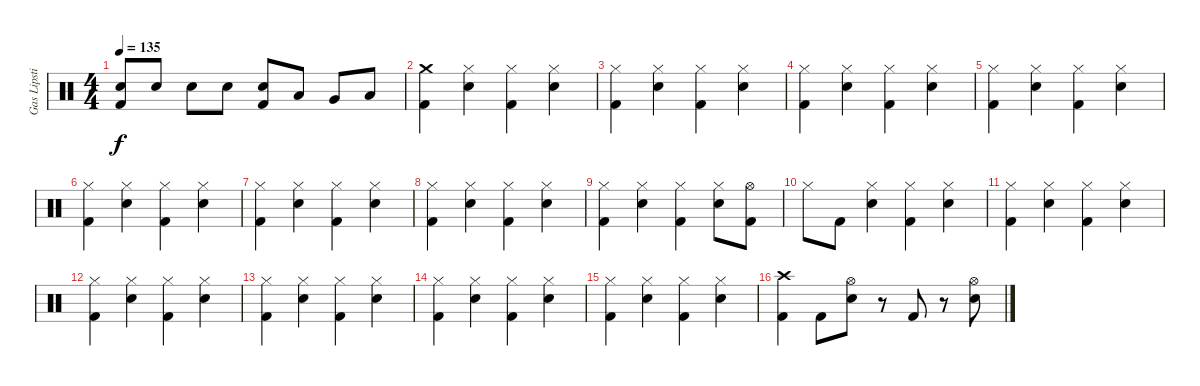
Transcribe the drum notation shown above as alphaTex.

\track ("Gas Lipstick" "Gas Lipsti") {instrument percussion}
\staff {score}
\articulation defaults
\ts (4 4)
\tempo 135
\clef neutral
\ks c
("Electric Snare (hit)" "Kick (hit) 2").8{dy f} "Electric Snare (hit)".8 "Electric Snare (hit)".8 "Electric Snare (hit)".8 ("Electric Snare (hit)" "Kick (hit) 2").8 "Low Tom (hit)".8 "Very Low Tom (hit)".8 "Low Floor Tom (hit)".8 |
("Kick (hit) 2" "Crash medium (hit)").4 ("Hi-Hat (closed)" "Electric Snare (hit)").4 ("Hi-Hat (closed)" "Kick (hit) 2").4 ("Hi-Hat (closed)" "Electric Snare (hit)").4 |
("Hi-Hat (closed)" "Kick (hit) 2").4 ("Hi-Hat (closed)" "Electric Snare (hit)").4 ("Kick (hit) 2" "Hi-Hat (closed)").4 ("Electric Snare (hit)" "Hi-Hat (closed)").4 |
("Hi-Hat (closed)" "Kick (hit) 2").4 ("Hi-Hat (closed)" "Electric Snare (hit)").4 ("Hi-Hat (closed)" "Kick (hit) 2").4 ("Hi-Hat (closed)" "Electric Snare (hit)").4 |
("Hi-Hat (closed)" "Kick (hit) 2").4 ("Hi-Hat (closed)" "Electric Snare (hit)").4 ("Kick (hit) 2" "Hi-Hat (closed)").4 ("Electric Snare (hit)" "Hi-Hat (closed)").4 |
("Hi-Hat (closed)" "Kick (hit) 2").4 ("Hi-Hat (closed)" "Electric Snare (hit)").4 ("Hi-Hat (closed)" "Kick (hit) 2").4 ("Hi-Hat (closed)" "Electric Snare (hit)").4 |
("Hi-Hat (closed)" "Kick (hit) 2").4 ("Hi-Hat (closed)" "Electric Snare (hit)").4 ("Kick (hit) 2" "Hi-Hat (closed)").4 ("Electric Snare (hit)" "Hi-Hat (closed)").4 |
("Hi-Hat (closed)" "Kick (hit) 2").4 ("Hi-Hat (closed)" "Electric Snare (hit)").4 ("Hi-Hat (closed)" "Kick (hit) 2").4 ("Hi-Hat (closed)" "Electric Snare (hit)").4 |
("Hi-Hat (closed)" "Kick (hit) 2").4 ("Hi-Hat (closed)" "Electric Snare (hit)").4 ("Kick (hit) 2" "Hi-Hat (closed)").4 ("Electric Snare (hit)" "Hi-Hat (closed)").8 ("Kick (hit) 2" "Hi-Hat (open)").8 |
"Hi-Hat (closed)".8 "Kick (hit) 2".8 ("Hi-Hat (closed)" "Electric Snare (hit)").4 ("Hi-Hat (closed)" "Kick (hit) 2").4 ("Hi-Hat (closed)" "Electric Snare (hit)").4 |
("Hi-Hat (closed)" "Kick (hit) 2").4 ("Hi-Hat (closed)" "Electric Snare (hit)").4 ("Kick (hit) 2" "Hi-Hat (closed)").4 ("Electric Snare (hit)" "Hi-Hat (closed)").4 |
("Hi-Hat (closed)" "Kick (hit) 2").4 ("Hi-Hat (closed)" "Electric Snare (hit)").4 ("Hi-Hat (closed)" "Kick (hit) 2").4 ("Hi-Hat (closed)" "Electric Snare (hit)").4 |
("Hi-Hat (closed)" "Kick (hit) 2").4 ("Hi-Hat (closed)" "Electric Snare (hit)").4 ("Kick (hit) 2" "Hi-Hat (closed)").4 ("Electric Snare (hit)" "Hi-Hat (closed)").4 |
("Hi-Hat (closed)" "Kick (hit) 2").4 ("Hi-Hat (closed)" "Electric Snare (hit)").4 ("Hi-Hat (closed)" "Kick (hit) 2").4 ("Hi-Hat (closed)" "Electric Snare (hit)").4 |
("Hi-Hat (closed)" "Kick (hit) 2").4 ("Hi-Hat (closed)" "Electric Snare (hit)").4 ("Kick (hit) 2" "Hi-Hat (closed)").4 ("Electric Snare (hit)" "Hi-Hat (closed)").4 |
("Kick (hit) 2" "Crash high (hit)").4 "Kick (hit) 2".8 ("Hi-Hat (open)" "Electric Snare (hit)").8 r.8 "Kick (hit) 2".8 r.8 ("Hi-Hat (open)" "Electric Snare (hit)").8
